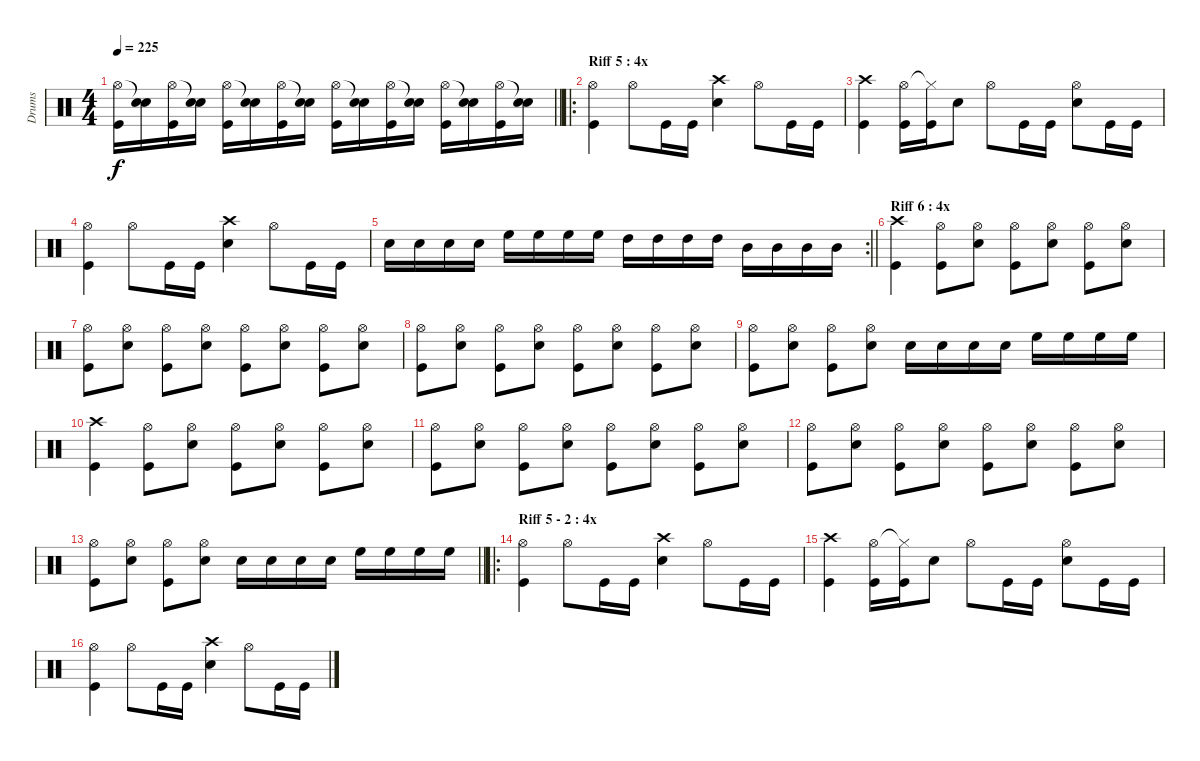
\track ("Drums" "Drums") {instrument percussion}
\staff {score}
\articulation defaults
\ts (4 4)
\tempo 225
\clef neutral
\barLineRight lightlight
\ks c
("Hi-Hat (open)" "Kick (hit)").16{dy f} ("Snare (hit)"{t} "Electric Snare (hit)").16 ("Hi-Hat (open)" "Kick (hit)").16 ("Snare (hit)"{t} "Electric Snare (hit)").16 ("Hi-Hat (open)" "Kick (hit)").16 ("Snare (hit)"{t} "Electric Snare (hit)").16 ("Hi-Hat (open)" "Kick (hit)").16 ("Snare (hit)"{t} "Electric Snare (hit)").16 ("Hi-Hat (open)" "Kick (hit)").16 ("Snare (hit)"{t} "Electric Snare (hit)").16 ("Hi-Hat (open)" "Kick (hit)").16 ("Snare (hit)"{t} "Electric Snare (hit)").16 ("Hi-Hat (open)" "Kick (hit)").16 ("Snare (hit)"{t} "Electric Snare (hit)").16 ("Hi-Hat (open)" "Kick (hit)").16 ("Snare (hit)"{t} "Electric Snare (hit)").16 |
\ro
\section ("" "Riff 5 : 4x")
("Hi-Hat (open)" "Kick (hit)").4 "Hi-Hat (open)".8 "Kick (hit)".16 "Kick (hit)".16 ("Crash high (hit)" "Electric Snare (hit)").4 "Hi-Hat (open)".8 "Kick (hit)".16 "Kick (hit)".16 |
("Crash high (hit)" "Kick (hit)").4 ("Hi-Hat (open)" "Kick (hit)").16 ("Hi-Hat (closed)"{t} "Kick (hit)").16 "Electric Snare (hit)".8 "Hi-Hat (open)".8 "Kick (hit)".16 "Kick (hit)".16 ("Hi-Hat (open)" "Electric Snare (hit)").8 "Kick (hit)".16 "Kick (hit)".16 |
("Hi-Hat (open)" "Kick (hit)").4 "Hi-Hat (open)".8 "Kick (hit)".16 "Kick (hit)".16 ("Crash high (hit)" "Electric Snare (hit)").4 "Hi-Hat (open)".8 "Kick (hit)".16 "Kick (hit)".16 |
\rc 2
\barLineRight lightlight "Electric Snare (hit)".16 "Electric Snare (hit)".16 "Electric Snare (hit)".16 "Electric Snare (hit)".16 "High Floor Tom (hit)".16 "High Floor Tom (hit)".16 "High Floor Tom (hit)".16 "High Floor Tom (hit)".16 "High Tom (hit)".16 "High Tom (hit)".16 "High Tom (hit)".16 "High Tom (hit)".16 "Mid Tom (hit)".16 "Mid Tom (hit)".16 "Mid Tom (hit)".16 "Mid Tom (hit)".16
|
\section ("" "Riff 6 : 4x")
("Crash high (hit)" "Kick (hit)").4 ("Hi-Hat (open)" "Kick (hit)").8 ("Hi-Hat (open)" "Electric Snare (hit)").8 ("Hi-Hat (open)" "Kick (hit)").8 ("Hi-Hat (open)" "Electric Snare (hit)").8 ("Hi-Hat (open)" "Kick (hit)").8 ("Hi-Hat (open)" "Electric Snare (hit)").8 |
("Hi-Hat (open)" "Kick (hit)").8 ("Hi-Hat (open)" "Electric Snare (hit)").8 ("Hi-Hat (open)" "Kick (hit)").8 ("Hi-Hat (open)" "Electric Snare (hit)").8 ("Hi-Hat (open)" "Kick (hit)").8 ("Hi-Hat (open)" "Electric Snare (hit)").8 ("Hi-Hat (open)" "Kick (hit)").8 ("Hi-Hat (open)" "Electric Snare (hit)").8 |
("Hi-Hat (open)" "Kick (hit)").8 ("Hi-Hat (open)" "Electric Snare (hit)").8 ("Hi-Hat (open)" "Kick (hit)").8 ("Hi-Hat (open)" "Electric Snare (hit)").8 ("Hi-Hat (open)" "Kick (hit)").8 ("Hi-Hat (open)" "Electric Snare (hit)").8 ("Hi-Hat (open)" "Kick (hit)").8 ("Hi-Hat (open)" "Electric Snare (hit)").8 |
("Hi-Hat (open)" "Kick (hit)").8 ("Hi-Hat (open)" "Electric Snare (hit)").8 ("Hi-Hat (open)" "Kick (hit)").8 ("Hi-Hat (open)" "Electric Snare (hit)").8 "Electric Snare (hit)".16 "Electric Snare (hit)".16 "Electric Snare (hit)".16 "Electric Snare (hit)".16 "High Floor Tom (hit)".16 "High Floor Tom (hit)".16 "High Floor Tom (hit)".16 "High Floor Tom (hit)".16 |
("Crash high (hit)" "Kick (hit)").4 ("Hi-Hat (open)" "Kick (hit)").8 ("Hi-Hat (open)" "Electric Snare (hit)").8 ("Hi-Hat (open)" "Kick (hit)").8 ("Hi-Hat (open)" "Electric Snare (hit)").8 ("Hi-Hat (open)" "Kick (hit)").8 ("Hi-Hat (open)" "Electric Snare (hit)").8 |
("Hi-Hat (open)" "Kick (hit)").8 ("Hi-Hat (open)" "Electric Snare (hit)").8 ("Hi-Hat (open)" "Kick (hit)").8 ("Hi-Hat (open)" "Electric Snare (hit)").8 ("Hi-Hat (open)" "Kick (hit)").8 ("Hi-Hat (open)" "Electric Snare (hit)").8 ("Hi-Hat (open)" "Kick (hit)").8 ("Hi-Hat (open)" "Electric Snare (hit)").8 |
("Hi-Hat (open)" "Kick (hit)").8 ("Hi-Hat (open)" "Electric Snare (hit)").8 ("Hi-Hat (open)" "Kick (hit)").8 ("Hi-Hat (open)" "Electric Snare (hit)").8 ("Hi-Hat (open)" "Kick (hit)").8 ("Hi-Hat (open)" "Electric Snare (hit)").8 ("Hi-Hat (open)" "Kick (hit)").8 ("Hi-Hat (open)" "Electric Snare (hit)").8 |
\barLineRight lightlight
("Hi-Hat (open)" "Kick (hit)").8 ("Hi-Hat (open)" "Electric Snare (hit)").8 ("Hi-Hat (open)" "Kick (hit)").8 ("Hi-Hat (open)" "Electric Snare (hit)").8 "Electric Snare (hit)".16 "Electric Snare (hit)".16 "Electric Snare (hit)".16 "Electric Snare (hit)".16 "High Floor Tom (hit)".16 "High Floor Tom (hit)".16 "High Floor Tom (hit)".16 "High Floor Tom (hit)".16 |
\ro
\section ("" "Riff 5 - 2 : 4x")
("Hi-Hat (open)" "Kick (hit)").4 "Hi-Hat (open)".8 "Kick (hit)".16 "Kick (hit)".16 ("Crash high (hit)" "Electric Snare (hit)").4 "Hi-Hat (open)".8 "Kick (hit)".16 "Kick (hit)".16 |
("Crash high (hit)" "Kick (hit)").4 ("Hi-Hat (open)" "Kick (hit)").16 ("Hi-Hat (closed)"{t} "Kick (hit)").16 "Electric Snare (hit)".8 "Hi-Hat (open)".8 "Kick (hit)".16 "Kick (hit)".16 ("Hi-Hat (open)" "Electric Snare (hit)").8 "Kick (hit)".16 "Kick (hit)".16 |
("Hi-Hat (open)" "Kick (hit)").4 "Hi-Hat (open)".8 "Kick (hit)".16 "Kick (hit)".16 ("Crash high (hit)" "Electric Snare (hit)").4 "Hi-Hat (open)".8 "Kick (hit)".16 "Kick (hit)".16
